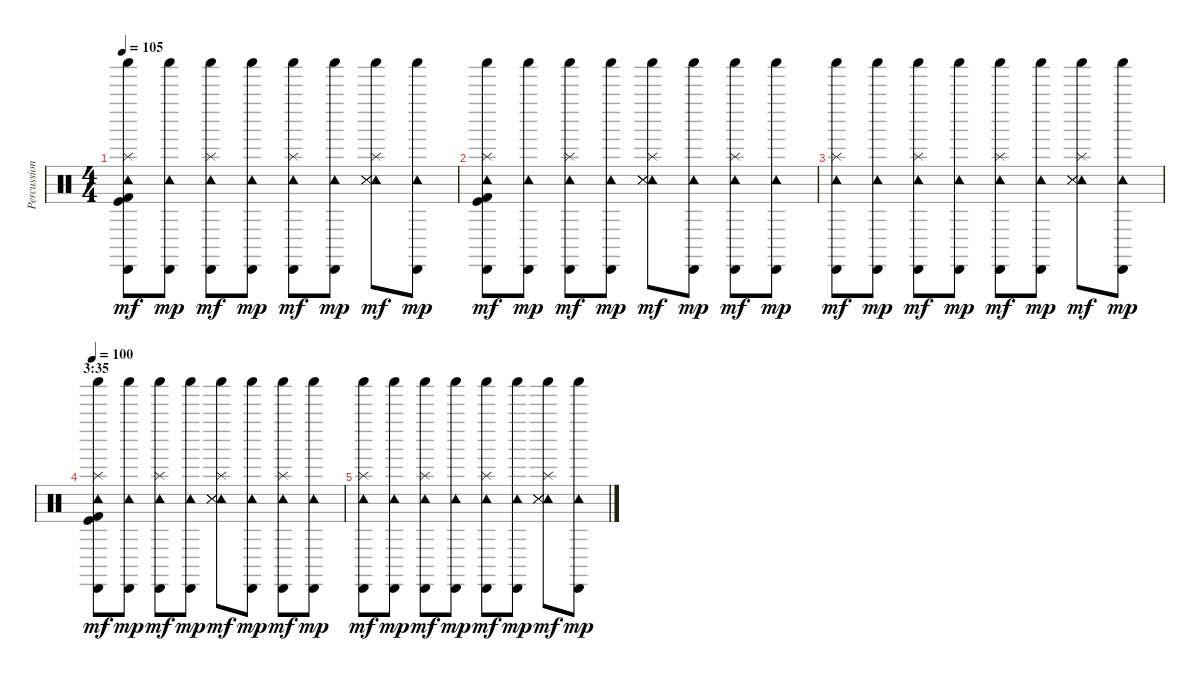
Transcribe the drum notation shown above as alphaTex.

\track ("Percussion (Ian Paice)" "Percussion") {instrument percussion}
\staff {score}
\articulation defaults
\ts (4 4)
\tempo 105
\clef neutral
\ks c
("Shaker (hit)" "Tambourine (hit)" "Cabasa (hit)" "Kick (hit)" "Kick (hit) 2" "Splash (hit)").8{dy mf} ("Shaker (hit)" "Tambourine (hit)" "Cabasa (hit)").8{dy mp} ("Shaker (hit)" "Tambourine (hit)" "Cabasa (hit)" "Splash (hit)").8{dy mf} ("Shaker (hit)" "Tambourine (hit)" "Cabasa (hit)").8{dy mp} ("Shaker (hit)" "Tambourine (hit)" "Cabasa (hit)" "Splash (hit)").8{dy mf} ("Shaker (hit)" "Tambourine (hit)" "Cabasa (hit)").8{dy mp} ("Shaker (hit)" "Tambourine (hit)" "Snare (side stick) 3" "Snare (side stick) 3" "Snare (side stick) 3" "Splash (hit)").8{dy mf} ("Shaker (hit)" "Tambourine (hit)" "Cabasa (hit)").8{dy mp} |
("Shaker (hit)" "Tambourine (hit)" "Cabasa (hit)" "Kick (hit)" "Kick (hit) 2" "Splash (hit)").8{dy mf} ("Shaker (hit)" "Tambourine (hit)" "Cabasa (hit)").8{dy mp} ("Shaker (hit)" "Tambourine (hit)" "Cabasa (hit)" "Splash (hit)").8{dy mf} ("Shaker (hit)" "Tambourine (hit)" "Cabasa (hit)").8{dy mp} ("Shaker (hit)" "Tambourine (hit)" "Snare (side stick) 3" "Snare (side stick) 3" "Snare (side stick) 3" "Splash (hit)").8{dy mf} ("Shaker (hit)" "Tambourine (hit)" "Cabasa (hit)").8{dy mp} ("Shaker (hit)" "Tambourine (hit)" "Cabasa (hit)" "Splash (hit)").8{dy mf} ("Shaker (hit)" "Tambourine (hit)" "Cabasa (hit)").8{dy mp} |
("Shaker (hit)" "Tambourine (hit)" "Cabasa (hit)" "Splash (hit)").8{dy mf} ("Shaker (hit)" "Tambourine (hit)" "Cabasa (hit)").8{dy mp} ("Shaker (hit)" "Tambourine (hit)" "Cabasa (hit)" "Splash (hit)").8{dy mf} ("Shaker (hit)" "Tambourine (hit)" "Cabasa (hit)").8{dy mp} ("Shaker (hit)" "Tambourine (hit)" "Cabasa (hit)" "Splash (hit)").8{dy mf} ("Shaker (hit)" "Tambourine (hit)" "Cabasa (hit)").8{dy mp} ("Shaker (hit)" "Tambourine (hit)" "Snare (side stick) 3" "Snare (side stick) 3" "Snare (side stick) 3" "Splash (hit)").8{dy mf} ("Shaker (hit)" "Tambourine (hit)" "Cabasa (hit)").8{dy mp} |
\section ("" "3:35")
\tempo 100
("Shaker (hit)" "Tambourine (hit)" "Cabasa (hit)" "Kick (hit)" "Kick (hit) 2" "Splash (hit)").8{dy mf} ("Shaker (hit)" "Tambourine (hit)" "Cabasa (hit)").8{dy mp} ("Shaker (hit)" "Tambourine (hit)" "Cabasa (hit)" "Splash (hit)").8{dy mf} ("Shaker (hit)" "Tambourine (hit)" "Cabasa (hit)").8{dy mp} ("Shaker (hit)" "Tambourine (hit)" "Snare (side stick) 3" "Snare (side stick) 3" "Snare (side stick) 3" "Splash (hit)").8{dy mf} ("Shaker (hit)" "Tambourine (hit)" "Cabasa (hit)").8{dy mp} ("Shaker (hit)" "Tambourine (hit)" "Cabasa (hit)" "Splash (hit)").8{dy mf} ("Shaker (hit)" "Tambourine (hit)" "Cabasa (hit)").8{dy mp} |
("Shaker (hit)" "Tambourine (hit)" "Cabasa (hit)" "Splash (hit)").8{dy mf} ("Shaker (hit)" "Tambourine (hit)" "Cabasa (hit)").8{dy mp} ("Shaker (hit)" "Tambourine (hit)" "Cabasa (hit)" "Splash (hit)").8{dy mf} ("Shaker (hit)" "Tambourine (hit)" "Cabasa (hit)").8{dy mp} ("Shaker (hit)" "Tambourine (hit)" "Cabasa (hit)" "Splash (hit)").8{dy mf} ("Shaker (hit)" "Tambourine (hit)" "Cabasa (hit)").8{dy mp} ("Shaker (hit)" "Tambourine (hit)" "Snare (side stick) 3" "Snare (side stick) 3" "Snare (side stick) 3" "Splash (hit)").8{dy mf} ("Shaker (hit)" "Tambourine (hit)" "Cabasa (hit)").8{dy mp}
